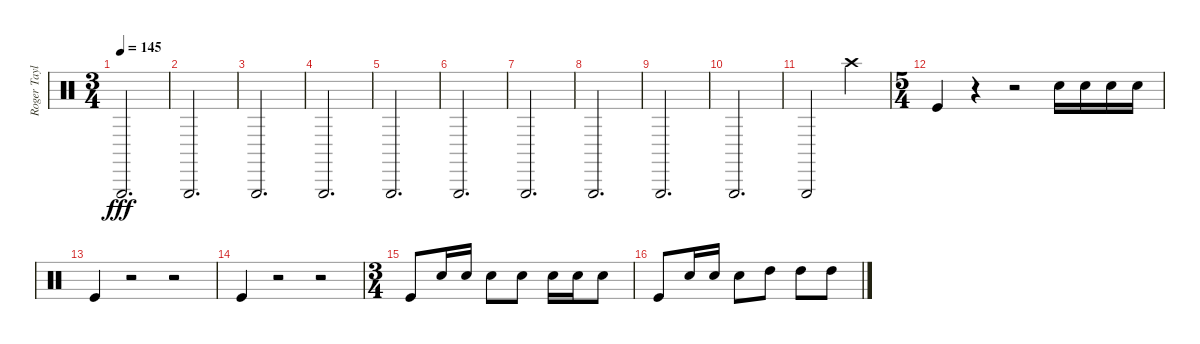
\track ("Roger Taylor" "Roger Tayl") {instrument percussion}
\staff {score}
\articulation defaults
\ts (3 4)
\tempo 145
\clef neutral
\ks c "Triangle (hit)".2{d dy fff}
|
"Triangle (hit)".2{d} |
"Triangle (hit)".2{d} |
"Triangle (hit)".2{d} |
"Triangle (hit)".2{d} |
"Triangle (hit)".2{d} |
"Triangle (hit)".2{d} |
"Triangle (hit)".2{d} |
"Triangle (hit)".2{d} |
"Triangle (hit)".2{d} |
"Triangle (hit)".2 "Crash high (hit)".4 |
\ts (5 4)
"Kick (hit)".4 r.4 r.2 "Snare (hit) 2".16 "Snare (hit) 2".16 "Snare (hit) 2".16 "Snare (hit) 2".16 |
"Kick (hit)".4 r.2 r.2 |
"Kick (hit)".4 r.2 r.2 |
\ts (3 4)
"Kick (hit)".8 "Snare (hit) 2".16 "Snare (hit) 2".16 "Snare (hit) 2".8 "Snare (hit) 2".8 "Snare (hit) 2".16 "Snare (hit) 2".16 "Snare (hit) 2".8 |
"Kick (hit)".8 "Snare (hit) 2".16 "Snare (hit) 2".16 "Snare (hit) 2".8 "High Tom (hit)".8 "High Tom (hit)".8 "High Tom (hit)".8
